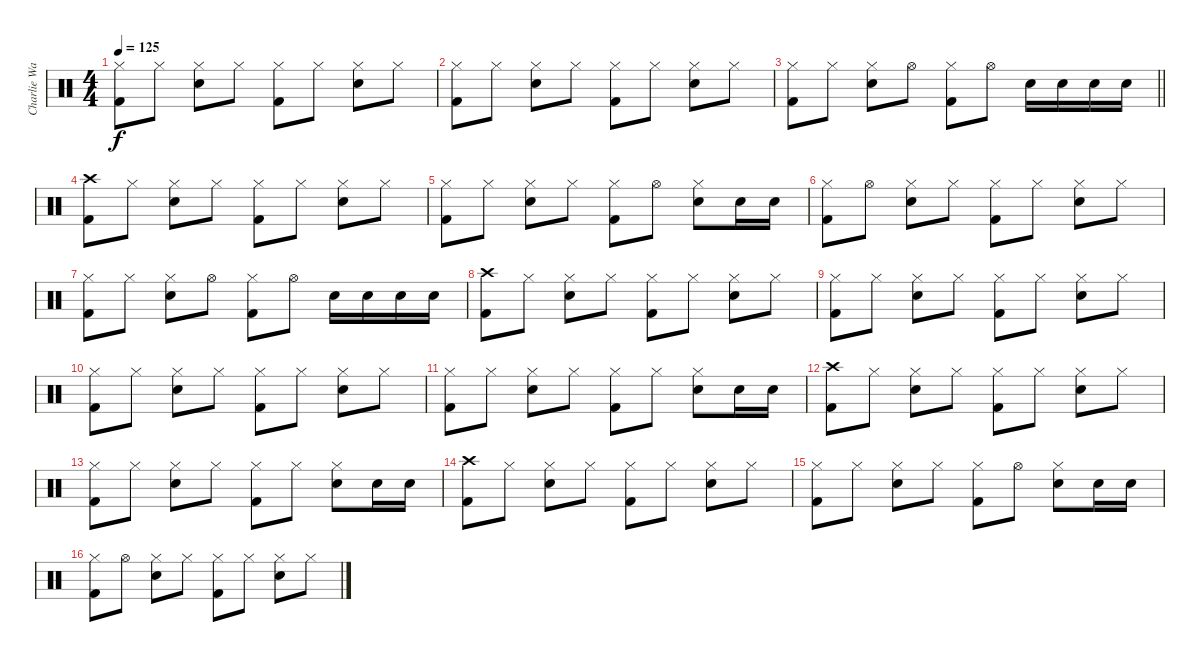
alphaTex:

\track ("Charlie Watson" "Charlie Wa") {instrument percussion}
\staff {score}
\articulation defaults
\ts (4 4)
\tempo 125
\clef neutral
\ks c
("Hi-Hat (closed)" "Kick (hit) 2").8{dy f} "Hi-Hat (closed)".8 ("Hi-Hat (closed)" "Snare (hit) 2").8 "Hi-Hat (closed)".8 ("Hi-Hat (closed)" "Kick (hit) 2").8 "Hi-Hat (closed)".8 ("Hi-Hat (closed)" "Snare (hit) 2").8 "Hi-Hat (closed)".8 |
("Hi-Hat (closed)" "Kick (hit) 2").8 "Hi-Hat (closed)".8 ("Hi-Hat (closed)" "Snare (hit) 2").8 "Hi-Hat (closed)".8 ("Hi-Hat (closed)" "Kick (hit) 2").8 "Hi-Hat (closed)".8 ("Hi-Hat (closed)" "Snare (hit) 2").8 "Hi-Hat (closed)".8 |
\barLineRight lightlight
("Hi-Hat (closed)" "Kick (hit) 2").8 "Hi-Hat (closed)".8 ("Hi-Hat (closed)" "Snare (hit) 2").8 "Hi-Hat (open)".8 ("Hi-Hat (closed)" "Kick (hit) 2").8 "Hi-Hat (open)".8 "Snare (hit) 2".16 "Snare (hit) 2".16 "Snare (hit) 2".16 "Snare (hit) 2".16 |
("Crash high (hit)" "Kick (hit) 2").8 "Hi-Hat (closed)".8 ("Hi-Hat (closed)" "Snare (hit) 2").8 "Hi-Hat (closed)".8 ("Hi-Hat (closed)" "Kick (hit) 2").8 "Hi-Hat (closed)".8 ("Hi-Hat (closed)" "Snare (hit) 2").8 "Hi-Hat (closed)".8 |
("Hi-Hat (closed)" "Kick (hit) 2").8 "Hi-Hat (closed)".8 ("Hi-Hat (closed)" "Snare (hit) 2").8 "Hi-Hat (closed)".8 ("Hi-Hat (closed)" "Kick (hit) 2").8 "Hi-Hat (open)".8 ("Hi-Hat (closed)" "Snare (hit) 2").8 "Snare (hit) 2".16 "Snare (hit) 2".16 |
("Hi-Hat (closed)" "Kick (hit) 2").8 "Hi-Hat (open)".8 ("Hi-Hat (closed)" "Snare (hit) 2").8 "Hi-Hat (closed)".8 ("Hi-Hat (closed)" "Kick (hit) 2").8 "Hi-Hat (closed)".8 ("Hi-Hat (closed)" "Snare (hit) 2").8 "Hi-Hat (closed)".8 |
("Hi-Hat (closed)" "Kick (hit) 2").8 "Hi-Hat (closed)".8 ("Hi-Hat (closed)" "Snare (hit) 2").8 "Hi-Hat (open)".8 ("Hi-Hat (closed)" "Kick (hit) 2").8 "Hi-Hat (open)".8 "Snare (hit) 2".16 "Snare (hit) 2".16 "Snare (hit) 2".16 "Snare (hit) 2".16 |
("Crash high (hit)" "Kick (hit) 2").8 "Hi-Hat (closed)".8 ("Hi-Hat (closed)" "Snare (hit) 2").8 "Hi-Hat (closed)".8 ("Hi-Hat (closed)" "Kick (hit) 2").8 "Hi-Hat (closed)".8 ("Hi-Hat (closed)" "Snare (hit) 2").8 "Hi-Hat (closed)".8 |
("Hi-Hat (closed)" "Kick (hit) 2").8 "Hi-Hat (closed)".8 ("Hi-Hat (closed)" "Snare (hit) 2").8 "Hi-Hat (closed)".8 ("Hi-Hat (closed)" "Kick (hit) 2").8 "Hi-Hat (closed)".8 ("Hi-Hat (closed)" "Snare (hit) 2").8 "Hi-Hat (closed)".8 |
("Hi-Hat (closed)" "Kick (hit) 2").8 "Hi-Hat (closed)".8 ("Hi-Hat (closed)" "Snare (hit) 2").8 "Hi-Hat (closed)".8 ("Hi-Hat (closed)" "Kick (hit) 2").8 "Hi-Hat (closed)".8 ("Hi-Hat (closed)" "Snare (hit) 2").8 "Hi-Hat (closed)".8 |
("Hi-Hat (closed)" "Kick (hit) 2").8 "Hi-Hat (closed)".8 ("Hi-Hat (closed)" "Snare (hit) 2").8 "Hi-Hat (closed)".8 ("Hi-Hat (closed)" "Kick (hit) 2").8 "Hi-Hat (closed)".8 ("Hi-Hat (closed)" "Snare (hit) 2").8 "Snare (hit) 2".16 "Snare (hit) 2".16 |
("Crash high (hit)" "Kick (hit) 2").8 "Hi-Hat (closed)".8 ("Hi-Hat (closed)" "Snare (hit) 2").8 "Hi-Hat (closed)".8 ("Hi-Hat (closed)" "Kick (hit) 2").8 "Hi-Hat (closed)".8 ("Hi-Hat (closed)" "Snare (hit) 2").8 "Hi-Hat (closed)".8 |
("Hi-Hat (closed)" "Kick (hit) 2").8 "Hi-Hat (closed)".8 ("Hi-Hat (closed)" "Snare (hit) 2").8 "Hi-Hat (closed)".8 ("Hi-Hat (closed)" "Kick (hit) 2").8 "Hi-Hat (closed)".8 ("Hi-Hat (closed)" "Snare (hit) 2").8 "Snare (hit) 2".16 "Snare (hit) 2".16 |
("Crash high (hit)" "Kick (hit) 2").8 "Hi-Hat (closed)".8 ("Hi-Hat (closed)" "Snare (hit) 2").8 "Hi-Hat (closed)".8 ("Hi-Hat (closed)" "Kick (hit) 2").8 "Hi-Hat (closed)".8 ("Hi-Hat (closed)" "Snare (hit) 2").8 "Hi-Hat (closed)".8 |
("Hi-Hat (closed)" "Kick (hit) 2").8 "Hi-Hat (closed)".8 ("Hi-Hat (closed)" "Snare (hit) 2").8 "Hi-Hat (closed)".8 ("Hi-Hat (closed)" "Kick (hit) 2").8 "Hi-Hat (open)".8 ("Hi-Hat (closed)" "Snare (hit) 2").8 "Snare (hit) 2".16 "Snare (hit) 2".16 |
("Hi-Hat (closed)" "Kick (hit) 2").8 "Hi-Hat (open)".8 ("Hi-Hat (closed)" "Snare (hit) 2").8 "Hi-Hat (closed)".8 ("Hi-Hat (closed)" "Kick (hit) 2").8 "Hi-Hat (closed)".8 ("Hi-Hat (closed)" "Snare (hit) 2").8 "Hi-Hat (closed)".8
